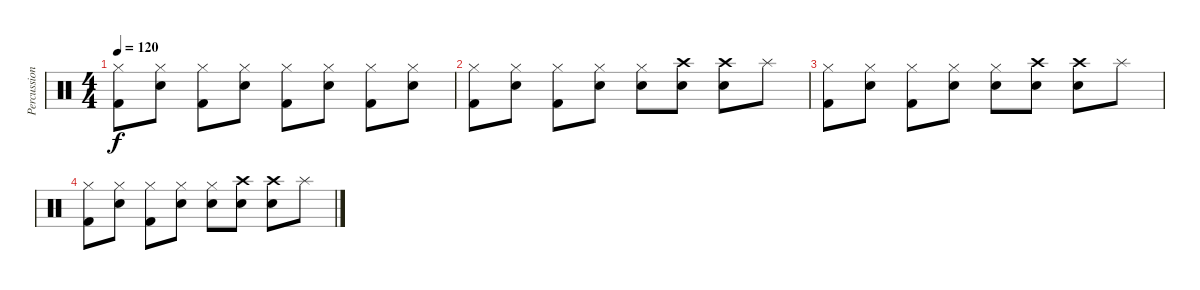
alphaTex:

\track ("Percussion" "Percussion") {instrument percussion}
\staff {score}
\articulation defaults
\ts (4 4)
\tempo 120
\clef neutral
\ks c
("Kick (hit) 2" "Hi-Hat (closed)").8{dy f} ("Snare (hit) 2" "Hi-Hat (closed)").8 ("Kick (hit) 2" "Hi-Hat (closed)").8 ("Snare (hit) 2" "Hi-Hat (closed)").8 ("Kick (hit) 2" "Hi-Hat (closed)").8 ("Snare (hit) 2" "Hi-Hat (closed)").8 ("Kick (hit) 2" "Hi-Hat (closed)").8 ("Snare (hit) 2" "Hi-Hat (closed)").8 |
("Kick (hit) 2" "Hi-Hat (closed)").8 ("Snare (hit) 2" "Hi-Hat (closed)").8 ("Kick (hit) 2" "Hi-Hat (closed)").8 ("Snare (hit) 2" "Hi-Hat (closed)").8 ("Snare (hit) 2" "Hi-Hat (closed)").8 ("Snare (hit) 2" "Crash high (hit)").8 ("Snare (hit) 2" "Crash high (hit)").8 "Splash (hit)".8 |
("Kick (hit) 2" "Hi-Hat (closed)").8 ("Snare (hit) 2" "Hi-Hat (closed)").8 ("Kick (hit) 2" "Hi-Hat (closed)").8 ("Snare (hit) 2" "Hi-Hat (closed)").8 ("Snare (hit) 2" "Hi-Hat (closed)").8 ("Snare (hit) 2" "Crash high (hit)").8 ("Snare (hit) 2" "Crash high (hit)").8 "Splash (hit)".8 |
("Kick (hit) 2" "Hi-Hat (closed)").8 ("Snare (hit) 2" "Hi-Hat (closed)").8 ("Kick (hit) 2" "Hi-Hat (closed)").8 ("Snare (hit) 2" "Hi-Hat (closed)").8 ("Snare (hit) 2" "Hi-Hat (closed)").8 ("Snare (hit) 2" "Crash high (hit)").8 ("Snare (hit) 2" "Crash high (hit)").8 "Splash (hit)".8
